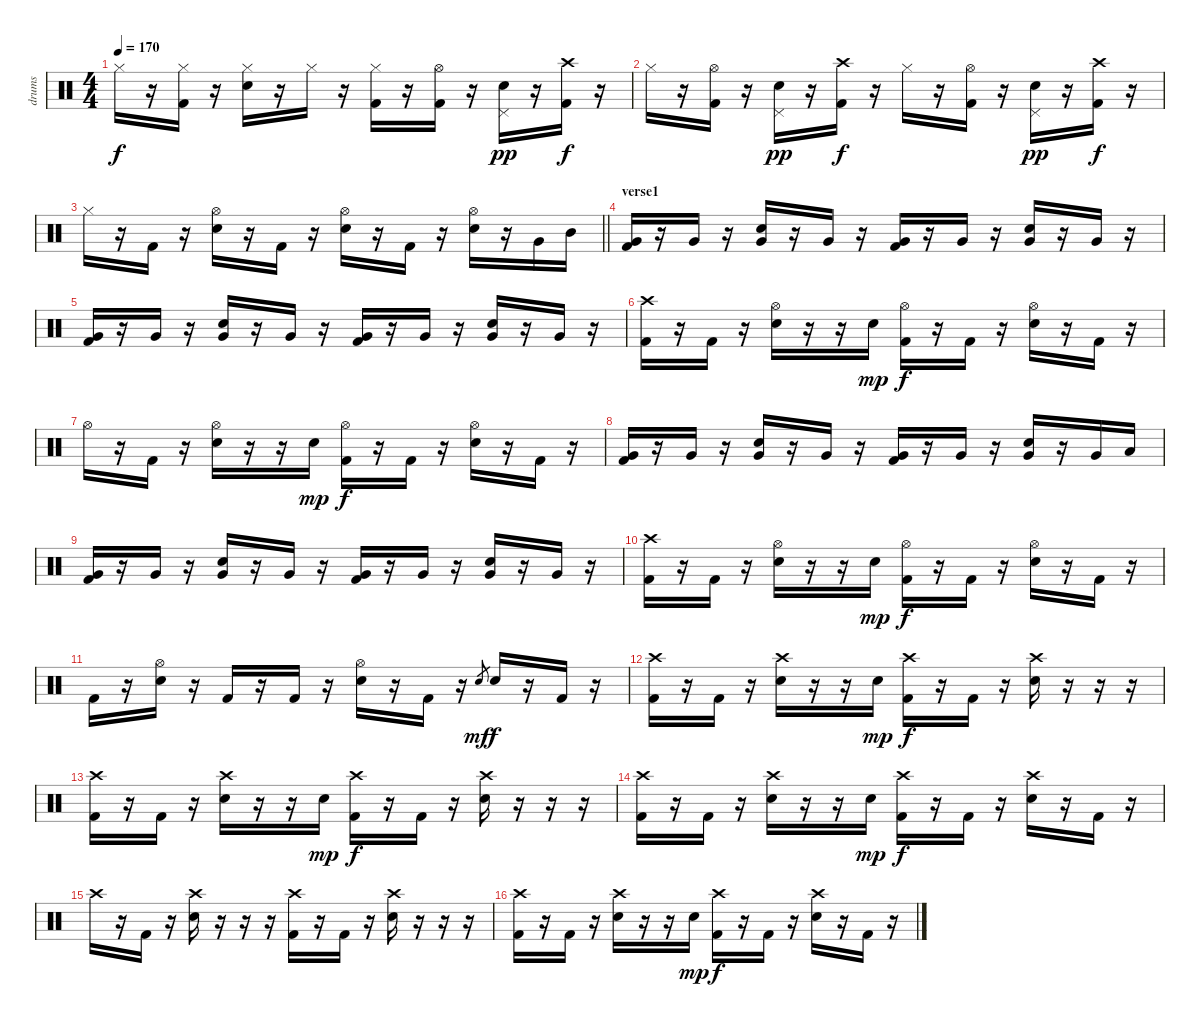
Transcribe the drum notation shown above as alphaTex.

\track ("drums" "drums") {instrument percussion}
\staff {score}
\articulation defaults
\ts (4 4)
\tempo 170
\clef neutral
\ks c "Hi-Hat (closed)".16{dy f}
r.16 ("Hi-Hat (closed)" "Kick (hit) 2").16 r.16 ("Hi-Hat (closed)" "Snare (hit) 2").16 r.16 "Hi-Hat (closed)".16 r.16 ("Hi-Hat (closed)" "Kick (hit) 2").16 r.16 ("Hi-Hat (open)" "Kick (hit) 2").16 r.16 ("Pedal Hi-Hat (hit)" "Snare (hit) 2").16{dy pp} r.16 ("Crash high (hit)" "Kick (hit) 2").16{dy f} r.16 |
"Hi-Hat (closed)".16 r.16 ("Hi-Hat (open)" "Kick (hit) 2").16 r.16 ("Pedal Hi-Hat (hit)" "Snare (hit) 2").16{dy pp} r.16 ("Crash high (hit)" "Kick (hit) 2").16{dy f} r.16 "Hi-Hat (closed)".16 r.16 ("Hi-Hat (open)" "Kick (hit) 2").16 r.16 ("Pedal Hi-Hat (hit)" "Snare (hit) 2").16{dy pp} r.16 ("Crash high (hit)" "Kick (hit) 2").16{dy f} r.16 |
\barLineRight lightlight "Hi-Hat (closed)".16
r.16 "Kick (hit) 2".16 r.16 ("Hi-Hat (open)" "Snare (hit) 2").16 r.16 "Kick (hit) 2".16 r.16 ("Hi-Hat (open)" "Snare (hit) 2").16 r.16 "Kick (hit) 2".16 r.16 ("Hi-Hat (open)" "Snare (hit) 2").16 r.16 "Very Low Tom (hit)".16 "Mid Tom (hit)".16 |
\section ("" "verse1")
("Very Low Tom (hit)" "Kick (hit) 2").16 r.16 "Very Low Tom (hit)".16 r.16 ("Snare (hit) 2" "Very Low Tom (hit)").16 r.16 "Very Low Tom (hit)".16 r.16 ("Very Low Tom (hit)" "Kick (hit) 2").16 r.16 "Very Low Tom (hit)".16 r.16 ("Snare (hit) 2" "Very Low Tom (hit)").16 r.16 "Very Low Tom (hit)".16 r.16 |
("Very Low Tom (hit)" "Kick (hit) 2").16 r.16 "Very Low Tom (hit)".16 r.16 ("Snare (hit) 2" "Very Low Tom (hit)").16 r.16 "Very Low Tom (hit)".16 r.16 ("Very Low Tom (hit)" "Kick (hit) 2").16 r.16 "Very Low Tom (hit)".16 r.16 ("Snare (hit) 2" "Very Low Tom (hit)").16 r.16 "Very Low Tom (hit)".16 r.16 |
("Crash high (hit)" "Kick (hit) 2").16 r.16 "Kick (hit) 2".16 r.16 ("Hi-Hat (open)" "Snare (hit) 2").16 r.16 r.16 "Snare (hit) 2".16{dy mp} ("Hi-Hat (open)" "Kick (hit) 2").16{dy f} r.16 "Kick (hit) 2".16 r.16 ("Hi-Hat (open)" "Snare (hit) 2").16 r.16 "Kick (hit) 2".16 r.16 |
"Hi-Hat (open)".16 r.16 "Kick (hit) 2".16 r.16 ("Hi-Hat (open)" "Snare (hit) 2").16 r.16 r.16 "Snare (hit) 2".16{dy mp} ("Hi-Hat (open)" "Kick (hit) 2").16{dy f} r.16 "Kick (hit) 2".16 r.16 ("Hi-Hat (open)" "Snare (hit) 2").16 r.16 "Kick (hit) 2".16 r.16 |
("Very Low Tom (hit)" "Kick (hit) 2").16 r.16 "Very Low Tom (hit)".16 r.16 ("Snare (hit) 2" "Very Low Tom (hit)").16 r.16 "Very Low Tom (hit)".16 r.16 ("Very Low Tom (hit)" "Kick (hit) 2").16 r.16 "Very Low Tom (hit)".16 r.16 ("Snare (hit) 2" "Very Low Tom (hit)").16 r.16 "Very Low Tom (hit)".16 "Low Tom (hit)".16 |
("Very Low Tom (hit)" "Kick (hit) 2").16 r.16 "Very Low Tom (hit)".16 r.16 ("Snare (hit) 2" "Very Low Tom (hit)").16 r.16 "Very Low Tom (hit)".16 r.16 ("Very Low Tom (hit)" "Kick (hit) 2").16 r.16 "Very Low Tom (hit)".16 r.16 ("Snare (hit) 2" "Very Low Tom (hit)").16 r.16 "Very Low Tom (hit)".16 r.16 |
("Crash high (hit)" "Kick (hit) 2").16 r.16 "Kick (hit) 2".16 r.16 ("Hi-Hat (open)" "Snare (hit) 2").16 r.16 r.16 "Snare (hit) 2".16{dy mp} ("Hi-Hat (open)" "Kick (hit) 2").16{dy f} r.16 "Kick (hit) 2".16 r.16 ("Hi-Hat (open)" "Snare (hit) 2").16 r.16 "Kick (hit) 2".16 r.16 |
"Kick (hit) 2".16 r.16 ("Hi-Hat (open)" "Snare (hit) 2").16 r.16 "Kick (hit) 2".16 r.16 "Kick (hit) 2".16 r.16 ("Hi-Hat (open)" "Snare (hit) 2").16 r.16 "Kick (hit) 2".16 r.16 "Snare (hit) 2".8{gr dy mf} "Snare (hit) 2".16{dy f} r.16 "Kick (hit) 2".16 r.16 |
("Crash high (hit)" "Kick (hit) 2").16 r.16 "Kick (hit) 2".16 r.16 ("Crash high (hit)" "Snare (hit) 2").16 r.16 r.16 "Snare (hit) 2".16{dy mp} ("Crash high (hit)" "Kick (hit) 2").16{dy f} r.16 "Kick (hit) 2".16 r.16 ("Crash high (hit)" "Snare (hit) 2").16 r.16 r.16 r.16 |
("Crash high (hit)" "Kick (hit) 2").16 r.16 "Kick (hit) 2".16 r.16 ("Crash high (hit)" "Snare (hit) 2").16 r.16 r.16 "Snare (hit) 2".16{dy mp} ("Crash high (hit)" "Kick (hit) 2").16{dy f} r.16 "Kick (hit) 2".16 r.16 ("Crash high (hit)" "Snare (hit) 2").16 r.16 r.16 r.16 |
("Crash high (hit)" "Kick (hit) 2").16 r.16 "Kick (hit) 2".16 r.16 ("Crash high (hit)" "Snare (hit) 2").16 r.16 r.16 "Snare (hit) 2".16{dy mp} ("Crash high (hit)" "Kick (hit) 2").16{dy f} r.16 "Kick (hit) 2".16 r.16 ("Crash high (hit)" "Snare (hit) 2").16 r.16 "Kick (hit) 2".16 r.16 |
"Crash high (hit)".16 r.16 "Kick (hit) 2".16 r.16 ("Crash high (hit)" "Snare (hit) 2").16 r.16 r.16 r.16 ("Crash high (hit)" "Kick (hit) 2").16 r.16 "Kick (hit) 2".16 r.16 ("Crash high (hit)" "Snare (hit) 2").16 r.16 r.16 r.16 |
("Crash high (hit)" "Kick (hit) 2").16 r.16 "Kick (hit) 2".16 r.16 ("Crash high (hit)" "Snare (hit) 2").16 r.16 r.16 "Snare (hit) 2".16{dy mp} ("Crash high (hit)" "Kick (hit) 2").16{dy f} r.16 "Kick (hit) 2".16 r.16 ("Crash high (hit)" "Snare (hit) 2").16 r.16 "Kick (hit) 2".16 r.16
